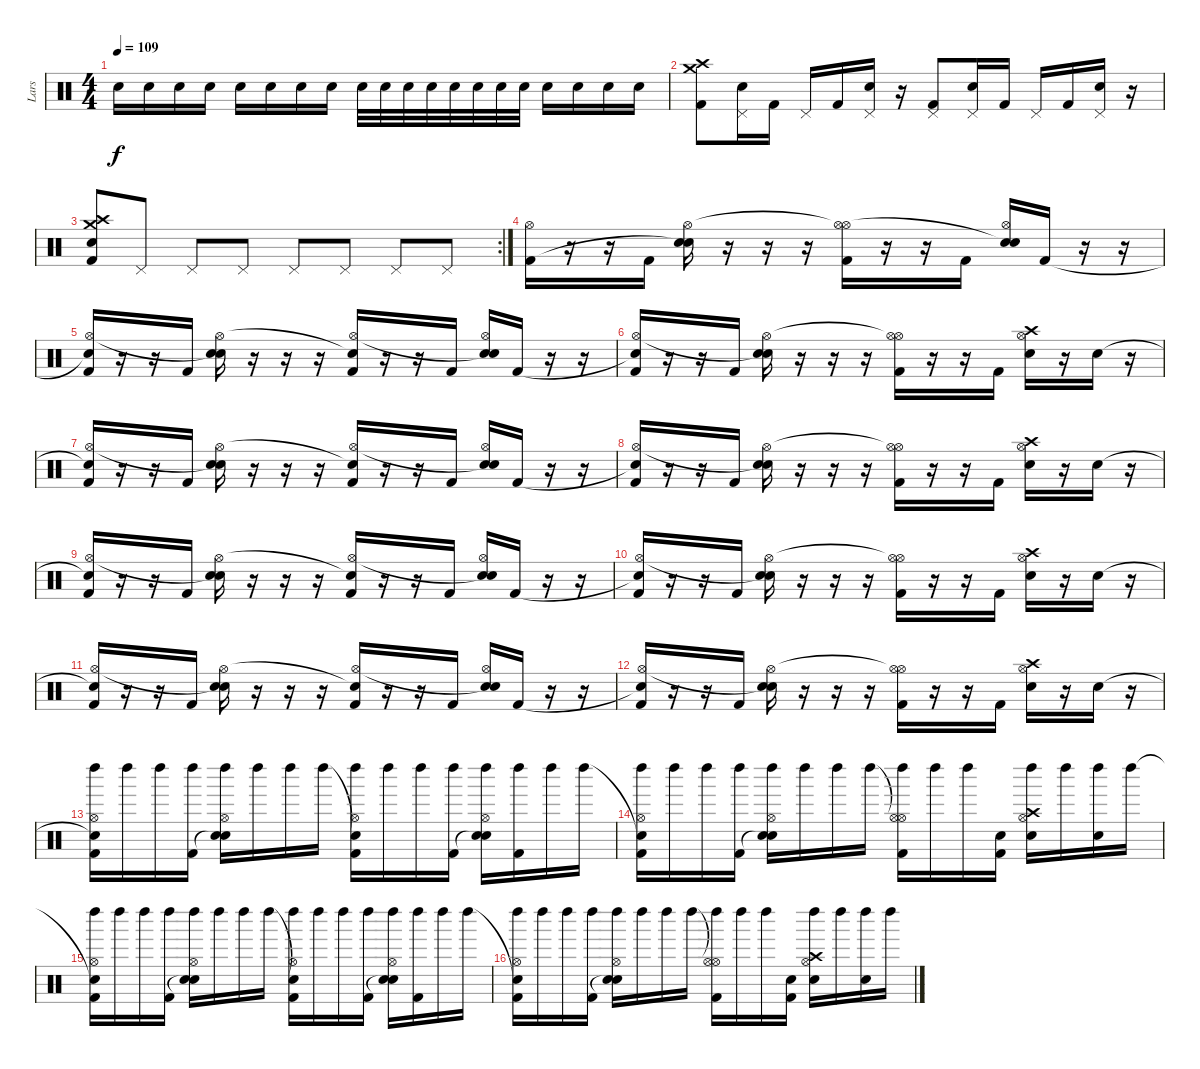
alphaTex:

\track ("Lars" "Lars") {instrument percussion}
\staff {score}
\articulation defaults
\ts (4 4)
\tempo 109
\clef neutral
\ks c "Electric Snare (hit)".16{dy f} "Electric Snare (hit)".16 "Electric Snare (hit)".16 "Electric Snare (hit)".16 "Electric Snare (hit)".16 "Electric Snare (hit)".16 "Electric Snare (hit)".16 "Electric Snare (hit)".16 "Electric Snare (hit)".32 "Electric Snare (hit)".32 "Electric Snare (hit)".32 "Electric Snare (hit)".32 "Electric Snare (hit)".32 "Electric Snare (hit)".32 "Electric Snare (hit)".32 "Electric Snare (hit)".32 "Electric Snare (hit)".16 "Electric Snare (hit)".16 "Electric Snare (hit)".16 "Electric Snare (hit)".16
|
("Crash high (hit)" "Crash medium (hit)" "Kick (hit) 2").8 ("Pedal Hi-Hat (hit)" "Electric Snare (hit)").16 "Kick (hit) 2".16 "Pedal Hi-Hat (hit)".16 "Kick (hit) 2".16 ("Pedal Hi-Hat (hit)" "Electric Snare (hit)").16 r.16 ("Pedal Hi-Hat (hit)" "Kick (hit) 2").8 ("Pedal Hi-Hat (hit)" "Electric Snare (hit)").16 "Kick (hit) 2".16 "Pedal Hi-Hat (hit)".16 "Kick (hit) 2".16 ("Pedal Hi-Hat (hit)" "Electric Snare (hit)").16 r.16 |
\rc 2
("Crash high (hit)" "Crash medium (hit)" "Electric Snare (hit)" "Kick (hit) 2").8 "Pedal Hi-Hat (hit)".8 "Pedal Hi-Hat (hit)".8 "Pedal Hi-Hat (hit)".8 "Pedal Hi-Hat (hit)".8 "Pedal Hi-Hat (hit)".8 "Pedal Hi-Hat (hit)".8 "Pedal Hi-Hat (hit)".8 |
("Hi-Hat (open)" "Kick (hit) 2").16 r.16 r.16 "Kick (hit) 2".16 ("Hi-Hat (open)" "Snare (hit)"{t} "Electric Snare (hit)").16 r.16 r.16 r.16 ("Hi-Hat (open)"{t} "Hi-Hat (open)" "Kick (hit) 2").16 r.16 r.16 "Kick (hit) 2".16 ("Hi-Hat (open)" "Snare (hit)"{t} "Electric Snare (hit)").16 "Kick (hit) 2".16 r.16 r.16 |
("Snare (hit)"{t} "Hi-Hat (open)" "Kick (hit) 2").16 r.16 r.16 "Kick (hit) 2".16 ("Hi-Hat (open)" "Snare (hit)"{t} "Electric Snare (hit)").16 r.16 r.16 r.16 ("Snare (hit)"{t} "Hi-Hat (open)" "Kick (hit) 2").16 r.16 r.16 "Kick (hit) 2".16 ("Hi-Hat (open)" "Snare (hit)"{t} "Electric Snare (hit)").16 "Kick (hit) 2".16 r.16 r.16 |
("Snare (hit)"{t} "Hi-Hat (open)" "Kick (hit) 2").16 r.16 r.16 "Kick (hit) 2".16 ("Hi-Hat (open)" "Snare (hit)"{t} "Electric Snare (hit)").16 r.16 r.16 r.16 ("Hi-Hat (open)"{t} "Hi-Hat (open)" "Kick (hit) 2").16 r.16 r.16 "Kick (hit) 2".16 ("Hi-Hat (open)" "Crash high (hit)" "Electric Snare (hit)").16 r.16 "Electric Snare (hit)".16 r.16 |
("Snare (hit)"{t} "Hi-Hat (open)" "Kick (hit) 2").16 r.16 r.16 "Kick (hit) 2".16 ("Hi-Hat (open)" "Snare (hit)"{t} "Electric Snare (hit)").16 r.16 r.16 r.16 ("Snare (hit)"{t} "Hi-Hat (open)" "Kick (hit) 2").16 r.16 r.16 "Kick (hit) 2".16 ("Hi-Hat (open)" "Snare (hit)"{t} "Electric Snare (hit)").16 "Kick (hit) 2".16 r.16 r.16 |
("Snare (hit)"{t} "Hi-Hat (open)" "Kick (hit) 2").16 r.16 r.16 "Kick (hit) 2".16 ("Hi-Hat (open)" "Snare (hit)"{t} "Electric Snare (hit)").16 r.16 r.16 r.16 ("Hi-Hat (open)"{t} "Hi-Hat (open)" "Kick (hit) 2").16 r.16 r.16 "Kick (hit) 2".16 ("Hi-Hat (open)" "Crash high (hit)" "Electric Snare (hit)").16 r.16 "Electric Snare (hit)".16 r.16 |
("Snare (hit)"{t} "Hi-Hat (open)" "Kick (hit) 2").16 r.16 r.16 "Kick (hit) 2".16 ("Hi-Hat (open)" "Snare (hit)"{t} "Electric Snare (hit)").16 r.16 r.16 r.16 ("Snare (hit)"{t} "Hi-Hat (open)" "Kick (hit) 2").16 r.16 r.16 "Kick (hit) 2".16 ("Hi-Hat (open)" "Snare (hit)"{t} "Electric Snare (hit)").16 "Kick (hit) 2".16 r.16 r.16 |
("Snare (hit)"{t} "Hi-Hat (open)" "Kick (hit) 2").16 r.16 r.16 "Kick (hit) 2".16 ("Hi-Hat (open)" "Snare (hit)"{t} "Electric Snare (hit)").16 r.16 r.16 r.16 ("Hi-Hat (open)"{t} "Hi-Hat (open)" "Kick (hit) 2").16 r.16 r.16 "Kick (hit) 2".16 ("Hi-Hat (open)" "Crash high (hit)" "Electric Snare (hit)").16 r.16 "Electric Snare (hit)".16 r.16 |
("Snare (hit)"{t} "Hi-Hat (open)" "Kick (hit) 2").16 r.16 r.16 "Kick (hit) 2".16 ("Hi-Hat (open)" "Snare (hit)"{t} "Electric Snare (hit)").16 r.16 r.16 r.16 ("Snare (hit)"{t} "Hi-Hat (open)" "Kick (hit) 2").16 r.16 r.16 "Kick (hit) 2".16 ("Hi-Hat (open)" "Snare (hit)"{t} "Electric Snare (hit)").16 "Kick (hit) 2".16 r.16 r.16 |
("Snare (hit)"{t} "Hi-Hat (open)" "Kick (hit) 2").16 r.16 r.16 "Kick (hit) 2".16 ("Hi-Hat (open)" "Snare (hit)"{t} "Electric Snare (hit)").16 r.16 r.16 r.16 ("Hi-Hat (open)"{t} "Hi-Hat (open)" "Kick (hit) 2").16 r.16 r.16 "Kick (hit) 2".16 ("Hi-Hat (open)" "Crash high (hit)" "Electric Snare (hit)").16 r.16 "Electric Snare (hit)".16 r.16 |
("Snare (hit)"{t} "Hi-Hat (open)" "Left Maraca (hit)" "Kick (hit) 2").16 "Left Maraca (hit)".16 "Left Maraca (hit)".16 ("Left Maraca (hit)" "Kick (hit) 2").16 ("Hi-Hat (open)" "Snare (hit)"{t} "Electric Snare (hit)" "Left Maraca (hit)").16 "Left Maraca (hit)".16 "Left Maraca (hit)".16 "Left Maraca (hit)".16 ("Snare (hit)"{t} "Hi-Hat (open)" "Left Maraca (hit)" "Kick (hit) 2").16 "Left Maraca (hit)".16 "Left Maraca (hit)".16 ("Left Maraca (hit)" "Kick (hit) 2").16 ("Hi-Hat (open)" "Snare (hit)"{t} "Electric Snare (hit)" "Left Maraca (hit)").16 ("Left Maraca (hit)" "Kick (hit) 2").16 "Left Maraca (hit)".16 "Left Maraca (hit)".16 |
("Snare (hit)"{t} "Hi-Hat (open)" "Left Maraca (hit)" "Kick (hit) 2").16 "Left Maraca (hit)".16 "Left Maraca (hit)".16 ("Left Maraca (hit)" "Kick (hit) 2").16 ("Hi-Hat (open)" "Snare (hit)"{t} "Electric Snare (hit)" "Left Maraca (hit)").16 "Left Maraca (hit)".16 "Left Maraca (hit)".16 "Left Maraca (hit)".16 ("Hi-Hat (open)"{t} "Hi-Hat (open)" "Left Maraca (hit)" "Kick (hit) 2").16 "Left Maraca (hit)".16 "Left Maraca (hit)".16 ("Snare (hit)" "Kick (hit) 2").16 ("Hi-Hat (open)" "Crash high (hit)" "Electric Snare (hit)" "Left Maraca (hit)").16 "Left Maraca (hit)".16 ("Electric Snare (hit)" "Left Maraca (hit)").16 "Left Maraca (hit)".16 |
("Snare (hit)"{t} "Hi-Hat (open)" "Left Maraca (hit)" "Kick (hit) 2").16 "Left Maraca (hit)".16 "Left Maraca (hit)".16 ("Left Maraca (hit)" "Kick (hit) 2").16 ("Hi-Hat (open)" "Snare (hit)"{t} "Electric Snare (hit)" "Left Maraca (hit)").16 "Left Maraca (hit)".16 "Left Maraca (hit)".16 "Left Maraca (hit)".16 ("Snare (hit)"{t} "Hi-Hat (open)" "Left Maraca (hit)" "Kick (hit) 2").16 "Left Maraca (hit)".16 "Left Maraca (hit)".16 ("Left Maraca (hit)" "Kick (hit) 2").16 ("Hi-Hat (open)" "Snare (hit)"{t} "Electric Snare (hit)" "Left Maraca (hit)").16 ("Left Maraca (hit)" "Kick (hit) 2").16 "Left Maraca (hit)".16 "Left Maraca (hit)".16 |
("Snare (hit)"{t} "Hi-Hat (open)" "Left Maraca (hit)" "Kick (hit) 2").16 "Left Maraca (hit)".16 "Left Maraca (hit)".16 ("Left Maraca (hit)" "Kick (hit) 2").16 ("Hi-Hat (open)" "Snare (hit)"{t} "Electric Snare (hit)" "Left Maraca (hit)").16 "Left Maraca (hit)".16 "Left Maraca (hit)".16 "Left Maraca (hit)".16 ("Hi-Hat (open)"{t} "Hi-Hat (open)" "Left Maraca (hit)" "Kick (hit) 2").16 "Left Maraca (hit)".16 "Left Maraca (hit)".16 ("Snare (hit)" "Kick (hit) 2").16 ("Hi-Hat (open)" "Crash high (hit)" "Electric Snare (hit)" "Left Maraca (hit)").16 "Left Maraca (hit)".16 ("Electric Snare (hit)" "Left Maraca (hit)").16 "Left Maraca (hit)".16
